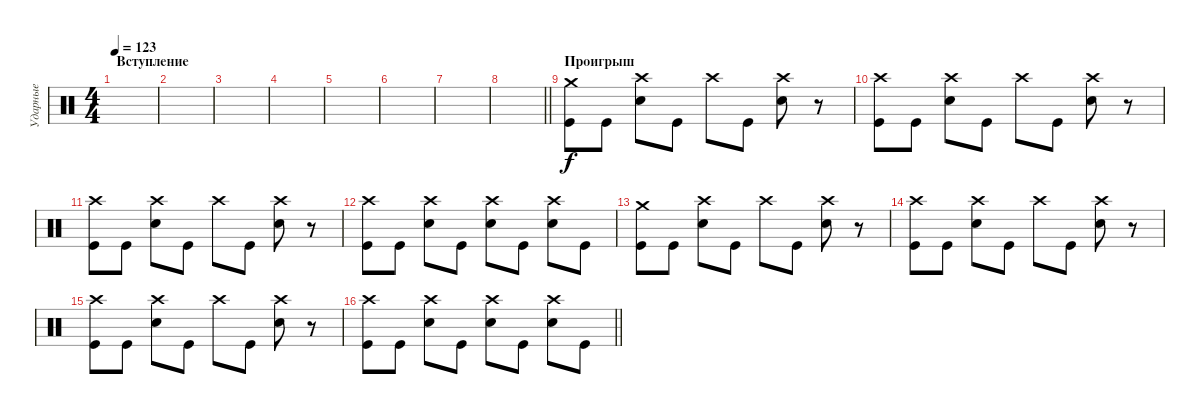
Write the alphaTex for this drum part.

\track ("Ударные" "Ударные") {instrument percussion}
\staff {score}
\articulation defaults
\ts (4 4)
\section ("" "Вступление")
\tempo 123
\clef neutral
\ks c
|
|
|
|
|
|
|
\barLineRight lightlight
|
\section ("" "Проигрыш")
("Crash medium (hit)" "Kick (hit)").8 "Kick (hit)".8 ("Crash high (hit)" "Electric Snare (hit)").8 "Kick (hit)".8 "Crash high (hit)".8 "Kick (hit)".8 ("Crash high (hit)" "Electric Snare (hit)").8 r.8 |
("Crash high (hit)" "Kick (hit)").8 "Kick (hit)".8 ("Crash high (hit)" "Electric Snare (hit)").8 "Kick (hit)".8 "Crash high (hit)".8 "Kick (hit)".8 ("Crash high (hit)" "Electric Snare (hit)").8 r.8 |
("Crash high (hit)" "Kick (hit)").8 "Kick (hit)".8 ("Crash high (hit)" "Electric Snare (hit)").8 "Kick (hit)".8 "Crash high (hit)".8 "Kick (hit)".8 ("Crash high (hit)" "Electric Snare (hit)").8 r.8 |
("Crash high (hit)" "Kick (hit)").8 "Kick (hit)".8 ("Crash high (hit)" "Electric Snare (hit)").8 "Kick (hit)".8 ("Crash high (hit)" "Electric Snare (hit)").8 "Kick (hit)".8 ("Crash high (hit)" "Electric Snare (hit)").8 "Kick (hit)".8 |
("Crash medium (hit)" "Kick (hit)").8 "Kick (hit)".8 ("Crash high (hit)" "Electric Snare (hit)").8 "Kick (hit)".8 "Crash high (hit)".8 "Kick (hit)".8 ("Crash high (hit)" "Electric Snare (hit)").8 r.8 |
("Crash high (hit)" "Kick (hit)").8 "Kick (hit)".8 ("Crash high (hit)" "Electric Snare (hit)").8 "Kick (hit)".8 "Crash high (hit)".8 "Kick (hit)".8 ("Crash high (hit)" "Electric Snare (hit)").8 r.8 |
("Crash high (hit)" "Kick (hit)").8 "Kick (hit)".8 ("Crash high (hit)" "Electric Snare (hit)").8 "Kick (hit)".8 "Crash high (hit)".8 "Kick (hit)".8 ("Crash high (hit)" "Electric Snare (hit)").8 r.8 |
\barLineRight lightlight
("Crash high (hit)" "Kick (hit)").8 "Kick (hit)".8 ("Crash high (hit)" "Electric Snare (hit)").8 "Kick (hit)".8 ("Crash high (hit)" "Electric Snare (hit)").8 "Kick (hit)".8 ("Crash high (hit)" "Electric Snare (hit)").8 "Kick (hit)".8
